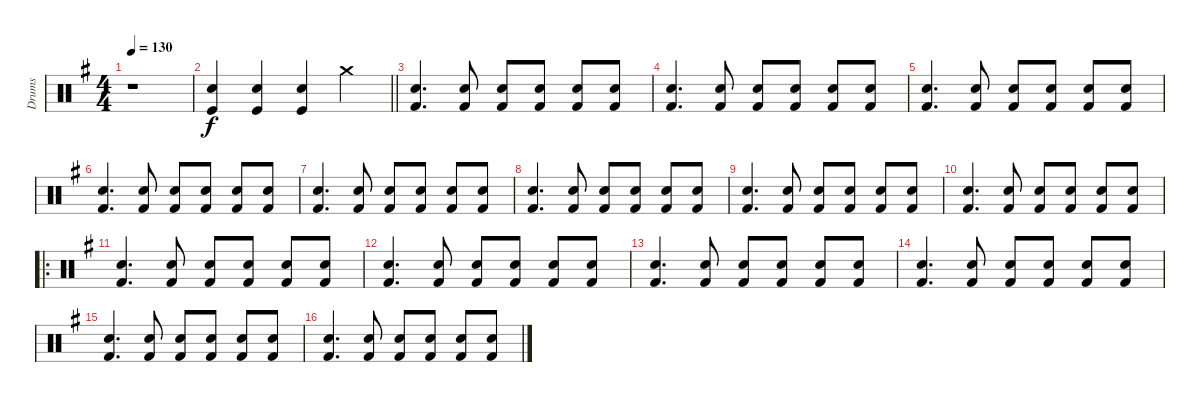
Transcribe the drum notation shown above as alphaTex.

\track ("Drums" "Drums") {instrument percussion}
\staff {score}
\articulation defaults
\ts (4 4)
\tempo 130
\clef neutral
\ks g
r.1{dy f} |
\barLineRight lightlight
("Electric Snare (hit)" "Kick (hit)").4 ("Electric Snare (hit)" "Kick (hit)").4 ("Electric Snare (hit)" "Kick (hit)").4 "Crash medium (hit)".4 |
("Snare (hit) 2" "Kick (hit) 2").4{d} ("Snare (hit) 2" "Kick (hit) 2").8 ("Snare (hit) 2" "Kick (hit) 2").8 ("Snare (hit) 2" "Kick (hit) 2").8 ("Snare (hit) 2" "Kick (hit) 2").8 ("Snare (hit) 2" "Kick (hit) 2").8 |
("Snare (hit) 2" "Kick (hit) 2").4{d} ("Snare (hit) 2" "Kick (hit) 2").8 ("Snare (hit) 2" "Kick (hit) 2").8 ("Snare (hit) 2" "Kick (hit) 2").8 ("Snare (hit) 2" "Kick (hit) 2").8 ("Snare (hit) 2" "Kick (hit) 2").8 |
("Snare (hit) 2" "Kick (hit) 2").4{d} ("Snare (hit) 2" "Kick (hit) 2").8 ("Snare (hit) 2" "Kick (hit) 2").8 ("Snare (hit) 2" "Kick (hit) 2").8 ("Snare (hit) 2" "Kick (hit) 2").8 ("Snare (hit) 2" "Kick (hit) 2").8 |
("Snare (hit) 2" "Kick (hit) 2").4{d} ("Snare (hit) 2" "Kick (hit) 2").8 ("Snare (hit) 2" "Kick (hit) 2").8 ("Snare (hit) 2" "Kick (hit) 2").8 ("Snare (hit) 2" "Kick (hit) 2").8 ("Snare (hit) 2" "Kick (hit) 2").8 |
("Snare (hit) 2" "Kick (hit) 2").4{d} ("Snare (hit) 2" "Kick (hit) 2").8 ("Snare (hit) 2" "Kick (hit) 2").8 ("Snare (hit) 2" "Kick (hit) 2").8 ("Snare (hit) 2" "Kick (hit) 2").8 ("Snare (hit) 2" "Kick (hit) 2").8 |
("Snare (hit) 2" "Kick (hit) 2").4{d} ("Snare (hit) 2" "Kick (hit) 2").8 ("Snare (hit) 2" "Kick (hit) 2").8 ("Snare (hit) 2" "Kick (hit) 2").8 ("Snare (hit) 2" "Kick (hit) 2").8 ("Snare (hit) 2" "Kick (hit) 2").8 |
("Snare (hit) 2" "Kick (hit) 2").4{d} ("Snare (hit) 2" "Kick (hit) 2").8 ("Snare (hit) 2" "Kick (hit) 2").8 ("Snare (hit) 2" "Kick (hit) 2").8 ("Snare (hit) 2" "Kick (hit) 2").8 ("Snare (hit) 2" "Kick (hit) 2").8 |
("Snare (hit) 2" "Kick (hit) 2").4{d} ("Snare (hit) 2" "Kick (hit) 2").8 ("Snare (hit) 2" "Kick (hit) 2").8 ("Snare (hit) 2" "Kick (hit) 2").8 ("Snare (hit) 2" "Kick (hit) 2").8 ("Snare (hit) 2" "Kick (hit) 2").8 |
\ro
("Snare (hit) 2" "Kick (hit) 2").4{d} ("Snare (hit) 2" "Kick (hit) 2").8 ("Snare (hit) 2" "Kick (hit) 2").8 ("Snare (hit) 2" "Kick (hit) 2").8 ("Snare (hit) 2" "Kick (hit) 2").8 ("Snare (hit) 2" "Kick (hit) 2").8 |
("Snare (hit) 2" "Kick (hit) 2").4{d} ("Snare (hit) 2" "Kick (hit) 2").8 ("Snare (hit) 2" "Kick (hit) 2").8 ("Snare (hit) 2" "Kick (hit) 2").8 ("Snare (hit) 2" "Kick (hit) 2").8 ("Snare (hit) 2" "Kick (hit) 2").8 |
("Snare (hit) 2" "Kick (hit) 2").4{d} ("Snare (hit) 2" "Kick (hit) 2").8 ("Snare (hit) 2" "Kick (hit) 2").8 ("Snare (hit) 2" "Kick (hit) 2").8 ("Snare (hit) 2" "Kick (hit) 2").8 ("Snare (hit) 2" "Kick (hit) 2").8 |
("Snare (hit) 2" "Kick (hit) 2").4{d} ("Snare (hit) 2" "Kick (hit) 2").8 ("Snare (hit) 2" "Kick (hit) 2").8 ("Snare (hit) 2" "Kick (hit) 2").8 ("Snare (hit) 2" "Kick (hit) 2").8 ("Snare (hit) 2" "Kick (hit) 2").8 |
("Snare (hit) 2" "Kick (hit) 2").4{d} ("Snare (hit) 2" "Kick (hit) 2").8 ("Snare (hit) 2" "Kick (hit) 2").8 ("Snare (hit) 2" "Kick (hit) 2").8 ("Snare (hit) 2" "Kick (hit) 2").8 ("Snare (hit) 2" "Kick (hit) 2").8 |
("Snare (hit) 2" "Kick (hit) 2").4{d} ("Snare (hit) 2" "Kick (hit) 2").8 ("Snare (hit) 2" "Kick (hit) 2").8 ("Snare (hit) 2" "Kick (hit) 2").8 ("Snare (hit) 2" "Kick (hit) 2").8 ("Snare (hit) 2" "Kick (hit) 2").8
